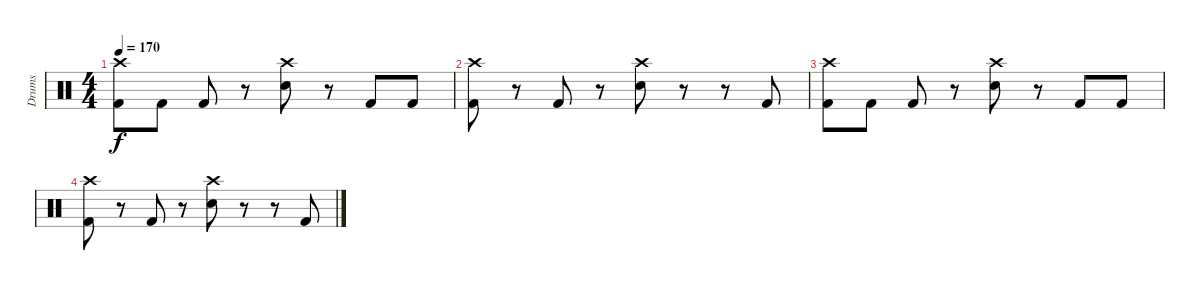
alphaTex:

\track ("Drums" "Drums") {instrument percussion}
\staff {score}
\articulation defaults
\ts (4 4)
\tempo 170
\clef neutral
\ks c
("Crash high (hit)" "Kick (hit) 2").8{dy f} "Kick (hit) 2".8 "Kick (hit) 2".8 r.8 ("Crash high (hit)" "Snare (hit) 2").8 r.8 "Kick (hit) 2".8 "Kick (hit) 2".8 |
("Crash high (hit)" "Kick (hit) 2").8 r.8 "Kick (hit) 2".8 r.8 ("Crash high (hit)" "Snare (hit) 2").8 r.8 r.8 "Kick (hit) 2".8 |
("Crash high (hit)" "Kick (hit) 2").8 "Kick (hit) 2".8 "Kick (hit) 2".8 r.8 ("Crash high (hit)" "Snare (hit) 2").8 r.8 "Kick (hit) 2".8 "Kick (hit) 2".8 |
("Crash high (hit)" "Kick (hit) 2").8 r.8 "Kick (hit) 2".8 r.8 ("Crash high (hit)" "Snare (hit) 2").8 r.8 r.8 "Kick (hit) 2".8
